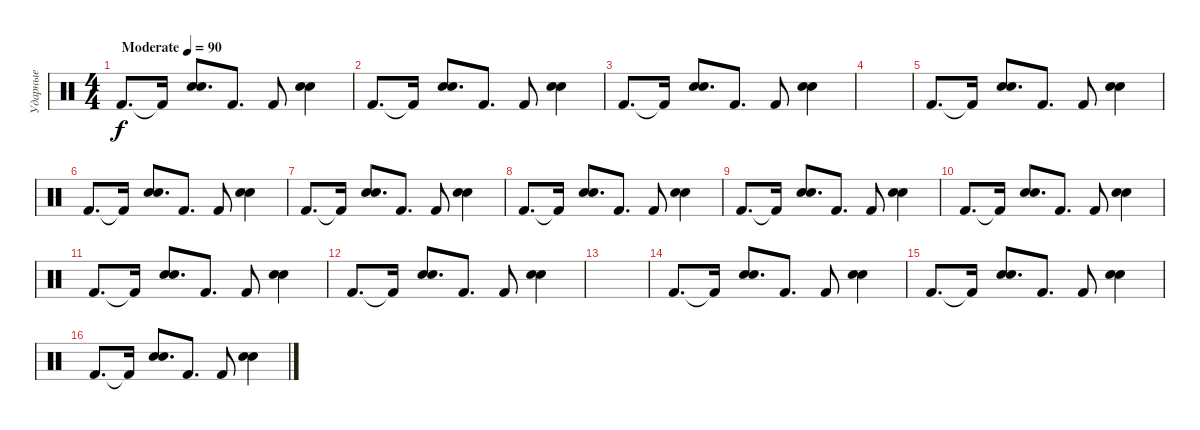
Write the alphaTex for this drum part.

\track ("Ударные" "Ударные") {instrument percussion}
\staff {score}
\articulation defaults
\ts (4 4)
\tempo (90 "Moderate")
\clef neutral
\ks c "Kick (hit) 2".8{d dy f} "Kick (hit) 2"{t}.16
("Hand Clap (hit)" "Snare (hit) 2").8{d} "Kick (hit) 2".8{d} "Kick (hit) 2".8 ("Hand Clap (hit)" "Snare (hit) 2").4 |
"Kick (hit) 2".8{d} "Kick (hit) 2"{t}.16 ("Hand Clap (hit)" "Snare (hit) 2").8{d} "Kick (hit) 2".8{d} "Kick (hit) 2".8 ("Hand Clap (hit)" "Snare (hit) 2").4 |
"Kick (hit) 2".8{d} "Kick (hit) 2"{t}.16 ("Hand Clap (hit)" "Snare (hit) 2").8{d} "Kick (hit) 2".8{d} "Kick (hit) 2".8 ("Hand Clap (hit)" "Snare (hit) 2").4 |
|
"Kick (hit) 2".8{d} "Kick (hit) 2"{t}.16 ("Hand Clap (hit)" "Snare (hit) 2").8{d} "Kick (hit) 2".8{d} "Kick (hit) 2".8 ("Hand Clap (hit)" "Snare (hit) 2").4 |
"Kick (hit) 2".8{d} "Kick (hit) 2"{t}.16 ("Hand Clap (hit)" "Snare (hit) 2").8{d} "Kick (hit) 2".8{d} "Kick (hit) 2".8 ("Hand Clap (hit)" "Snare (hit) 2").4 |
"Kick (hit) 2".8{d} "Kick (hit) 2"{t}.16 ("Hand Clap (hit)" "Snare (hit) 2").8{d} "Kick (hit) 2".8{d} "Kick (hit) 2".8 ("Hand Clap (hit)" "Snare (hit) 2").4 |
"Kick (hit) 2".8{d} "Kick (hit) 2"{t}.16 ("Hand Clap (hit)" "Snare (hit) 2").8{d} "Kick (hit) 2".8{d} "Kick (hit) 2".8 ("Hand Clap (hit)" "Snare (hit) 2").4 |
"Kick (hit) 2".8{d} "Kick (hit) 2"{t}.16 ("Hand Clap (hit)" "Snare (hit) 2").8{d} "Kick (hit) 2".8{d} "Kick (hit) 2".8 ("Hand Clap (hit)" "Snare (hit) 2").4 |
"Kick (hit) 2".8{d} "Kick (hit) 2"{t}.16 ("Hand Clap (hit)" "Snare (hit) 2").8{d} "Kick (hit) 2".8{d} "Kick (hit) 2".8 ("Hand Clap (hit)" "Snare (hit) 2").4 |
"Kick (hit) 2".8{d} "Kick (hit) 2"{t}.16 ("Hand Clap (hit)" "Snare (hit) 2").8{d} "Kick (hit) 2".8{d} "Kick (hit) 2".8 ("Hand Clap (hit)" "Snare (hit) 2").4 |
"Kick (hit) 2".8{d} "Kick (hit) 2"{t}.16 ("Hand Clap (hit)" "Snare (hit) 2").8{d} "Kick (hit) 2".8{d} "Kick (hit) 2".8 ("Hand Clap (hit)" "Snare (hit) 2").4 |
|
"Kick (hit) 2".8{d} "Kick (hit) 2"{t}.16 ("Hand Clap (hit)" "Snare (hit) 2").8{d} "Kick (hit) 2".8{d} "Kick (hit) 2".8 ("Hand Clap (hit)" "Snare (hit) 2").4 |
"Kick (hit) 2".8{d} "Kick (hit) 2"{t}.16 ("Hand Clap (hit)" "Snare (hit) 2").8{d} "Kick (hit) 2".8{d} "Kick (hit) 2".8 ("Hand Clap (hit)" "Snare (hit) 2").4 |
"Kick (hit) 2".8{d} "Kick (hit) 2"{t}.16 ("Hand Clap (hit)" "Snare (hit) 2").8{d} "Kick (hit) 2".8{d} "Kick (hit) 2".8 ("Hand Clap (hit)" "Snare (hit) 2").4
